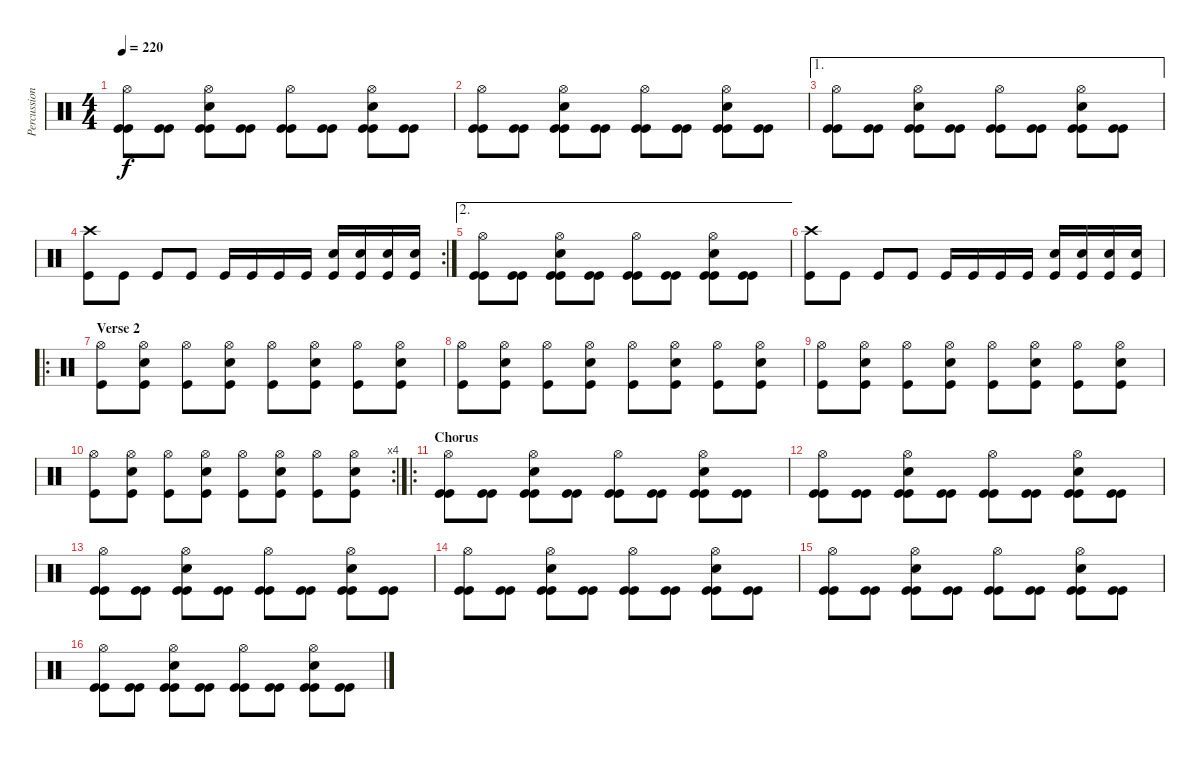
\track ("Percussion" "Percussion") {instrument percussion}
\staff {score}
\articulation defaults
\ts (4 4)
\tempo 220
\clef neutral
\ks c
("Hi-Hat (open)" "Kick (hit)" "Kick (hit)").8{dy f} ("Kick (hit)" "Kick (hit)").8 ("Hi-Hat (open)" "Snare (hit) 2" "Kick (hit)" "Kick (hit)").8 ("Kick (hit)" "Kick (hit)").8 ("Hi-Hat (open)" "Kick (hit)" "Kick (hit)").8 ("Kick (hit)" "Kick (hit)").8 ("Hi-Hat (open)" "Snare (hit) 2" "Kick (hit)" "Kick (hit)").8 ("Kick (hit)" "Kick (hit)").8 |
("Hi-Hat (open)" "Kick (hit)" "Kick (hit)").8 ("Kick (hit)" "Kick (hit)").8 ("Hi-Hat (open)" "Snare (hit) 2" "Kick (hit)" "Kick (hit)").8 ("Kick (hit)" "Kick (hit)").8 ("Hi-Hat (open)" "Kick (hit)" "Kick (hit)").8 ("Kick (hit)" "Kick (hit)").8 ("Hi-Hat (open)" "Snare (hit) 2" "Kick (hit)" "Kick (hit)").8 ("Kick (hit)" "Kick (hit)").8 |
\ae 1
("Hi-Hat (open)" "Kick (hit)" "Kick (hit)").8 ("Kick (hit)" "Kick (hit)").8 ("Hi-Hat (open)" "Snare (hit) 2" "Kick (hit)" "Kick (hit)").8 ("Kick (hit)" "Kick (hit)").8 ("Hi-Hat (open)" "Kick (hit)" "Kick (hit)").8 ("Kick (hit)" "Kick (hit)").8 ("Hi-Hat (open)" "Snare (hit) 2" "Kick (hit)" "Kick (hit)").8 ("Kick (hit)" "Kick (hit)").8 |
\rc 2
("Crash high (hit)" "Kick (hit)").8 "Kick (hit)".8 "Kick (hit)".8 "Kick (hit)".8 "Kick (hit)".16 "Kick (hit)".16 "Kick (hit)".16 "Kick (hit)".16 ("Snare (hit) 2" "Kick (hit)").16 ("Snare (hit) 2" "Kick (hit)").16 ("Snare (hit) 2" "Kick (hit)").16 ("Snare (hit) 2" "Kick (hit)").16 |
\ae 2
("Hi-Hat (open)" "Kick (hit)" "Kick (hit)").8 ("Kick (hit)" "Kick (hit)").8 ("Hi-Hat (open)" "Snare (hit) 2" "Kick (hit)" "Kick (hit)").8 ("Kick (hit)" "Kick (hit)").8 ("Hi-Hat (open)" "Kick (hit)" "Kick (hit)").8 ("Kick (hit)" "Kick (hit)").8 ("Hi-Hat (open)" "Snare (hit) 2" "Kick (hit)" "Kick (hit)").8 ("Kick (hit)" "Kick (hit)").8 |
("Crash high (hit)" "Kick (hit)").8 "Kick (hit)".8 "Kick (hit)".8 "Kick (hit)".8 "Kick (hit)".16 "Kick (hit)".16 "Kick (hit)".16 "Kick (hit)".16 ("Snare (hit) 2" "Kick (hit)").16 ("Snare (hit) 2" "Kick (hit)").16 ("Snare (hit) 2" "Kick (hit)").16 ("Snare (hit) 2" "Kick (hit)").16 |
\ro
\section ("" "Verse 2")
("Hi-Hat (open)" "Kick (hit)").8 ("Hi-Hat (open)" "Snare (hit) 2" "Kick (hit)").8 ("Hi-Hat (open)" "Kick (hit)").8 ("Hi-Hat (open)" "Snare (hit) 2" "Kick (hit)").8 ("Hi-Hat (open)" "Kick (hit)").8 ("Hi-Hat (open)" "Snare (hit) 2" "Kick (hit)").8 ("Hi-Hat (open)" "Kick (hit)").8 ("Hi-Hat (open)" "Snare (hit) 2" "Kick (hit)").8 |
("Hi-Hat (open)" "Kick (hit)").8 ("Hi-Hat (open)" "Snare (hit) 2" "Kick (hit)").8 ("Hi-Hat (open)" "Kick (hit)").8 ("Hi-Hat (open)" "Snare (hit) 2" "Kick (hit)").8 ("Hi-Hat (open)" "Kick (hit)").8 ("Hi-Hat (open)" "Snare (hit) 2" "Kick (hit)").8 ("Hi-Hat (open)" "Kick (hit)").8 ("Hi-Hat (open)" "Snare (hit) 2" "Kick (hit)").8 |
("Hi-Hat (open)" "Kick (hit)").8 ("Hi-Hat (open)" "Snare (hit) 2" "Kick (hit)").8 ("Hi-Hat (open)" "Kick (hit)").8 ("Hi-Hat (open)" "Snare (hit) 2" "Kick (hit)").8 ("Hi-Hat (open)" "Kick (hit)").8 ("Hi-Hat (open)" "Snare (hit) 2" "Kick (hit)").8 ("Hi-Hat (open)" "Kick (hit)").8 ("Hi-Hat (open)" "Snare (hit) 2" "Kick (hit)").8 |
\rc 4
("Hi-Hat (open)" "Kick (hit)").8 ("Hi-Hat (open)" "Snare (hit) 2" "Kick (hit)").8 ("Hi-Hat (open)" "Kick (hit)").8 ("Hi-Hat (open)" "Snare (hit) 2" "Kick (hit)").8 ("Hi-Hat (open)" "Kick (hit)").8 ("Hi-Hat (open)" "Snare (hit) 2" "Kick (hit)").8 ("Hi-Hat (open)" "Kick (hit)").8 ("Hi-Hat (open)" "Snare (hit) 2" "Kick (hit)").8 |
\ro
\section ("" "Chorus")
("Hi-Hat (open)" "Kick (hit)" "Kick (hit)").8 ("Kick (hit)" "Kick (hit)").8 ("Hi-Hat (open)" "Snare (hit) 2" "Kick (hit)" "Kick (hit)").8 ("Kick (hit)" "Kick (hit)").8 ("Hi-Hat (open)" "Kick (hit)" "Kick (hit)").8 ("Kick (hit)" "Kick (hit)").8 ("Hi-Hat (open)" "Snare (hit) 2" "Kick (hit)" "Kick (hit)").8 ("Kick (hit)" "Kick (hit)").8 |
("Hi-Hat (open)" "Kick (hit)" "Kick (hit)").8 ("Kick (hit)" "Kick (hit)").8 ("Hi-Hat (open)" "Snare (hit) 2" "Kick (hit)" "Kick (hit)").8 ("Kick (hit)" "Kick (hit)").8 ("Hi-Hat (open)" "Kick (hit)" "Kick (hit)").8 ("Kick (hit)" "Kick (hit)").8 ("Hi-Hat (open)" "Snare (hit) 2" "Kick (hit)" "Kick (hit)").8 ("Kick (hit)" "Kick (hit)").8 |
("Hi-Hat (open)" "Kick (hit)" "Kick (hit)").8 ("Kick (hit)" "Kick (hit)").8 ("Hi-Hat (open)" "Snare (hit) 2" "Kick (hit)" "Kick (hit)").8 ("Kick (hit)" "Kick (hit)").8 ("Hi-Hat (open)" "Kick (hit)" "Kick (hit)").8 ("Kick (hit)" "Kick (hit)").8 ("Hi-Hat (open)" "Snare (hit) 2" "Kick (hit)" "Kick (hit)").8 ("Kick (hit)" "Kick (hit)").8 |
("Hi-Hat (open)" "Kick (hit)" "Kick (hit)").8 ("Kick (hit)" "Kick (hit)").8 ("Hi-Hat (open)" "Snare (hit) 2" "Kick (hit)" "Kick (hit)").8 ("Kick (hit)" "Kick (hit)").8 ("Hi-Hat (open)" "Kick (hit)" "Kick (hit)").8 ("Kick (hit)" "Kick (hit)").8 ("Hi-Hat (open)" "Snare (hit) 2" "Kick (hit)" "Kick (hit)").8 ("Kick (hit)" "Kick (hit)").8 |
("Hi-Hat (open)" "Kick (hit)" "Kick (hit)").8 ("Kick (hit)" "Kick (hit)").8 ("Hi-Hat (open)" "Snare (hit) 2" "Kick (hit)" "Kick (hit)").8 ("Kick (hit)" "Kick (hit)").8 ("Hi-Hat (open)" "Kick (hit)" "Kick (hit)").8 ("Kick (hit)" "Kick (hit)").8 ("Hi-Hat (open)" "Snare (hit) 2" "Kick (hit)" "Kick (hit)").8 ("Kick (hit)" "Kick (hit)").8 |
("Hi-Hat (open)" "Kick (hit)" "Kick (hit)").8 ("Kick (hit)" "Kick (hit)").8 ("Hi-Hat (open)" "Snare (hit) 2" "Kick (hit)" "Kick (hit)").8 ("Kick (hit)" "Kick (hit)").8 ("Hi-Hat (open)" "Kick (hit)" "Kick (hit)").8 ("Kick (hit)" "Kick (hit)").8 ("Hi-Hat (open)" "Snare (hit) 2" "Kick (hit)" "Kick (hit)").8 ("Kick (hit)" "Kick (hit)").8
